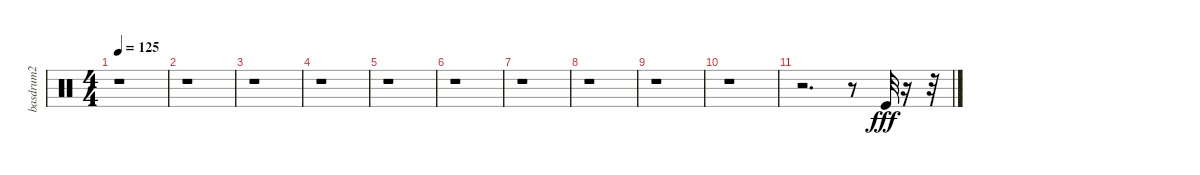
\track ("basdrum2" "basdrum2") {instrument percussion}
\staff {score}
\articulation defaults
\ts (4 4)
\tempo 125
\clef neutral
\ks c
r.1{dy fff} |
r.1 |
r.1 |
r.1 |
r.1 |
r.1 |
r.1 |
r.1 |
r.1 |
r.1 |
r.2{d} r.8 "Kick (hit)".32 r.16 r.32
